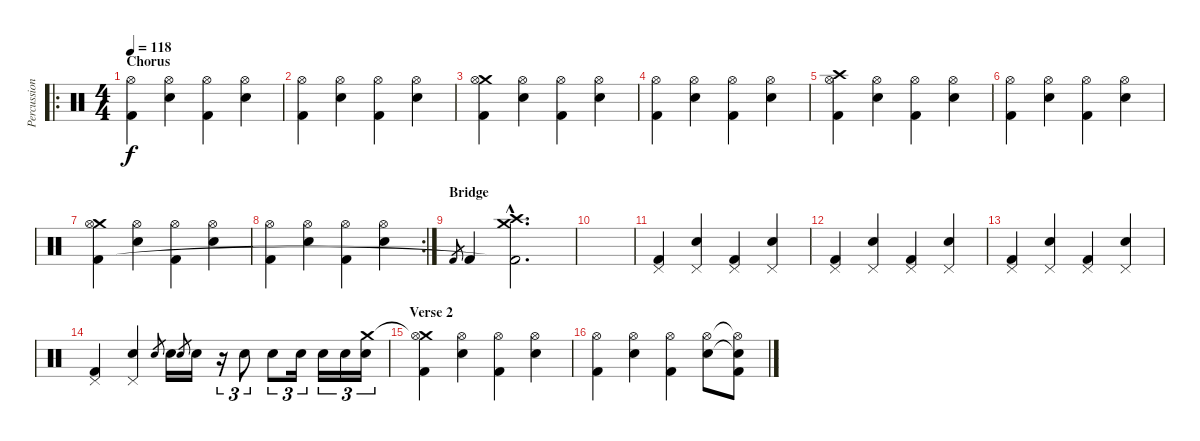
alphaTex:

\track ("Percussion" "Percussion") {instrument percussion}
\staff {score}
\articulation defaults
\ro
\ts (4 4)
\section ("" "Chorus")
\tempo 118
\clef neutral
\ks c
("Hi-Hat (open)" "Kick (hit) 2").4{dy f} ("Hi-Hat (open)" "Electric Snare (hit)").4 ("Hi-Hat (open)" "Kick (hit) 2").4 ("Hi-Hat (open)" "Electric Snare (hit)").4 |
("Hi-Hat (open)" "Kick (hit) 2").4 ("Hi-Hat (open)" "Electric Snare (hit)").4 ("Hi-Hat (open)" "Kick (hit) 2").4 ("Hi-Hat (open)" "Electric Snare (hit)").4 |
("Crash medium (hit)" "Hi-Hat (open)" "Kick (hit) 2").4 ("Hi-Hat (open)" "Electric Snare (hit)").4 ("Hi-Hat (open)" "Kick (hit) 2").4 ("Hi-Hat (open)" "Electric Snare (hit)").4 |
("Hi-Hat (open)" "Kick (hit) 2").4 ("Hi-Hat (open)" "Electric Snare (hit)").4 ("Hi-Hat (open)" "Kick (hit) 2").4 ("Hi-Hat (open)" "Electric Snare (hit)").4 |
("Crash high (hit)" "Hi-Hat (open)" "Kick (hit) 2").4 ("Hi-Hat (open)" "Electric Snare (hit)").4 ("Hi-Hat (open)" "Kick (hit) 2").4 ("Hi-Hat (open)" "Electric Snare (hit)").4 |
("Hi-Hat (open)" "Kick (hit) 2").4 ("Hi-Hat (open)" "Electric Snare (hit)").4 ("Hi-Hat (open)" "Kick (hit) 2").4 ("Hi-Hat (open)" "Electric Snare (hit)").4 |
("Crash medium (hit)" "Hi-Hat (open)" "Kick (hit) 2").4 ("Hi-Hat (open)" "Electric Snare (hit)").4 ("Hi-Hat (open)" "Kick (hit) 2").4 ("Hi-Hat (open)" "Electric Snare (hit)").4 |
\rc 2
("Hi-Hat (open)" "Kick (hit) 2").4 ("Hi-Hat (open)" "Electric Snare (hit)").4 ("Hi-Hat (open)" "Kick (hit) 2").4 ("Hi-Hat (open)" "Electric Snare (hit)").4 |
\section ("" "Bridge")
"Kick (hit) 2".8{gr} "Kick (hit) 2".4 ("Crash high (hit)"{hac} "Crash medium (hit)"{hac} "Kick (hit) 2"{hac t}).2{d} |
|
("Pedal Hi-Hat (hit)" "Kick (hit) 2").4 ("Pedal Hi-Hat (hit)" "Electric Snare (hit)").4 ("Pedal Hi-Hat (hit)" "Kick (hit) 2").4 ("Pedal Hi-Hat (hit)" "Electric Snare (hit)").4 |
("Pedal Hi-Hat (hit)" "Kick (hit) 2").4 ("Pedal Hi-Hat (hit)" "Electric Snare (hit)").4 ("Pedal Hi-Hat (hit)" "Kick (hit) 2").4 ("Pedal Hi-Hat (hit)" "Electric Snare (hit)").4 |
("Pedal Hi-Hat (hit)" "Kick (hit) 2").4 ("Pedal Hi-Hat (hit)" "Electric Snare (hit)").4 ("Pedal Hi-Hat (hit)" "Kick (hit) 2").4 ("Pedal Hi-Hat (hit)" "Electric Snare (hit)").4 |
("Pedal Hi-Hat (hit)" "Kick (hit) 2").4 ("Pedal Hi-Hat (hit)" "Electric Snare (hit)").4 "Electric Snare (hit)".8{gr} "Electric Snare (hit)".16 "Electric Snare (hit)".8{gr} "Electric Snare (hit)".16 r.16{tu (3 2)} "Electric Snare (hit)".8{tu (3 2)} "Electric Snare (hit)".8{tu (3 2)} "Electric Snare (hit)".16{tu (3 2)} "Electric Snare (hit)".16{tu (3 2)} "Electric Snare (hit)".16{tu (3 2)} ("Crash medium (hit)" "Electric Snare (hit)").16{tu (3 2)} |
\section ("" "Verse 2")
("Crash medium (hit)"{t} "Hi-Hat (open)" "Kick (hit) 2").4 ("Hi-Hat (open)" "Electric Snare (hit)").4 ("Hi-Hat (open)" "Kick (hit) 2").4 ("Hi-Hat (open)" "Electric Snare (hit)").4 |
("Hi-Hat (open)" "Kick (hit) 2").4 ("Hi-Hat (open)" "Electric Snare (hit)").4 ("Hi-Hat (open)" "Kick (hit) 2").4 ("Hi-Hat (open)" "Electric Snare (hit)").8 ("Hi-Hat (open)"{t} "Electric Snare (hit)"{t} "Kick (hit) 2").8
